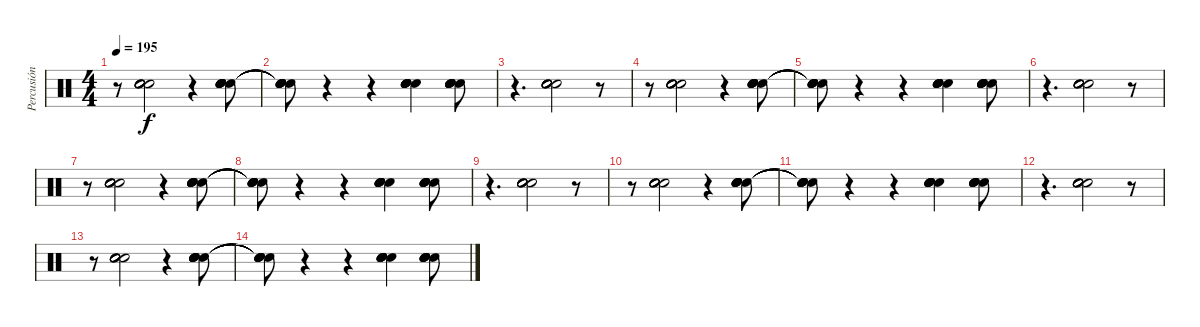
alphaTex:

\track ("Percusión" "Percusión") {instrument percussion}
\staff {score}
\articulation defaults
\ts (4 4)
\tempo 195
\clef neutral
\ks c
r.8{dy f} ("Hand Clap (hit)" "Hand Clap (hit)" "Hand Clap (hit)" "Hand Clap (hit)" "Hand Clap (hit)" "Hand Clap (hit)").2{bd 120} r.4 ("Hand Clap (hit)" "Hand Clap (hit)" "Hand Clap (hit)" "Hand Clap (hit)" "Hand Clap (hit)" "Hand Clap (hit)").8{bd 120} |
("Snare (hit)"{t} "Snare (hit)"{t} "Snare (hit)"{t} "Snare (hit)"{t} "Snare (hit)"{t} "Snare (hit)"{t}).8 r.4 r.4 ("Hand Clap (hit)" "Hand Clap (hit)" "Hand Clap (hit)" "Hand Clap (hit)" "Hand Clap (hit)" "Hand Clap (hit)").4{bd 120} ("Hand Clap (hit)" "Hand Clap (hit)" "Hand Clap (hit)" "Hand Clap (hit)" "Hand Clap (hit)" "Hand Clap (hit)").8{bd 120} |
r.4{d} ("Hand Clap (hit)" "Hand Clap (hit)" "Hand Clap (hit)" "Hand Clap (hit)" "Hand Clap (hit)" "Hand Clap (hit)").2{bd 120} r.8 |
r.8 ("Hand Clap (hit)" "Hand Clap (hit)" "Hand Clap (hit)" "Hand Clap (hit)" "Hand Clap (hit)" "Hand Clap (hit)").2{bd 120} r.4 ("Hand Clap (hit)" "Hand Clap (hit)" "Hand Clap (hit)" "Hand Clap (hit)" "Hand Clap (hit)" "Hand Clap (hit)").8{bd 120} |
("Snare (hit)"{t} "Snare (hit)"{t} "Snare (hit)"{t} "Snare (hit)"{t} "Snare (hit)"{t} "Snare (hit)"{t}).8 r.4 r.4 ("Hand Clap (hit)" "Hand Clap (hit)" "Hand Clap (hit)" "Hand Clap (hit)" "Hand Clap (hit)" "Hand Clap (hit)").4{bd 120} ("Hand Clap (hit)" "Hand Clap (hit)" "Hand Clap (hit)" "Hand Clap (hit)" "Hand Clap (hit)" "Hand Clap (hit)").8{bd 120} |
r.4{d} ("Hand Clap (hit)" "Hand Clap (hit)" "Hand Clap (hit)" "Hand Clap (hit)" "Hand Clap (hit)" "Hand Clap (hit)").2{bd 120} r.8 |
r.8 ("Hand Clap (hit)" "Hand Clap (hit)" "Hand Clap (hit)" "Hand Clap (hit)" "Hand Clap (hit)" "Hand Clap (hit)").2{bd 120} r.4 ("Hand Clap (hit)" "Hand Clap (hit)" "Hand Clap (hit)" "Hand Clap (hit)" "Hand Clap (hit)" "Hand Clap (hit)").8{bd 120} |
("Snare (hit)"{t} "Snare (hit)"{t} "Snare (hit)"{t} "Snare (hit)"{t} "Snare (hit)"{t} "Snare (hit)"{t}).8 r.4 r.4 ("Hand Clap (hit)" "Hand Clap (hit)" "Hand Clap (hit)" "Hand Clap (hit)" "Hand Clap (hit)" "Hand Clap (hit)").4{bd 120} ("Hand Clap (hit)" "Hand Clap (hit)" "Hand Clap (hit)" "Hand Clap (hit)" "Hand Clap (hit)" "Hand Clap (hit)").8{bd 120} |
r.4{d} ("Hand Clap (hit)" "Hand Clap (hit)" "Hand Clap (hit)" "Hand Clap (hit)" "Hand Clap (hit)" "Hand Clap (hit)").2{bd 120} r.8 |
r.8 ("Hand Clap (hit)" "Hand Clap (hit)" "Hand Clap (hit)" "Hand Clap (hit)" "Hand Clap (hit)" "Hand Clap (hit)").2{bd 120} r.4 ("Hand Clap (hit)" "Hand Clap (hit)" "Hand Clap (hit)" "Hand Clap (hit)" "Hand Clap (hit)" "Hand Clap (hit)").8{bd 120} |
("Snare (hit)"{t} "Snare (hit)"{t} "Snare (hit)"{t} "Snare (hit)"{t} "Snare (hit)"{t} "Snare (hit)"{t}).8 r.4 r.4 ("Hand Clap (hit)" "Hand Clap (hit)" "Hand Clap (hit)" "Hand Clap (hit)" "Hand Clap (hit)" "Hand Clap (hit)").4{bd 120} ("Hand Clap (hit)" "Hand Clap (hit)" "Hand Clap (hit)" "Hand Clap (hit)" "Hand Clap (hit)" "Hand Clap (hit)").8{bd 120} |
r.4{d} ("Hand Clap (hit)" "Hand Clap (hit)" "Hand Clap (hit)" "Hand Clap (hit)" "Hand Clap (hit)" "Hand Clap (hit)").2{bd 120} r.8 |
r.8 ("Hand Clap (hit)" "Hand Clap (hit)" "Hand Clap (hit)" "Hand Clap (hit)" "Hand Clap (hit)" "Hand Clap (hit)").2{bd 120} r.4 ("Hand Clap (hit)" "Hand Clap (hit)" "Hand Clap (hit)" "Hand Clap (hit)" "Hand Clap (hit)" "Hand Clap (hit)").8{bd 120} |
("Snare (hit)"{t} "Snare (hit)"{t} "Snare (hit)"{t} "Snare (hit)"{t} "Snare (hit)"{t} "Snare (hit)"{t}).8 r.4 r.4 ("Hand Clap (hit)" "Hand Clap (hit)" "Hand Clap (hit)" "Hand Clap (hit)" "Hand Clap (hit)" "Hand Clap (hit)").4{bd 120} ("Hand Clap (hit)" "Hand Clap (hit)" "Hand Clap (hit)" "Hand Clap (hit)" "Hand Clap (hit)" "Hand Clap (hit)").8{bd 120}
